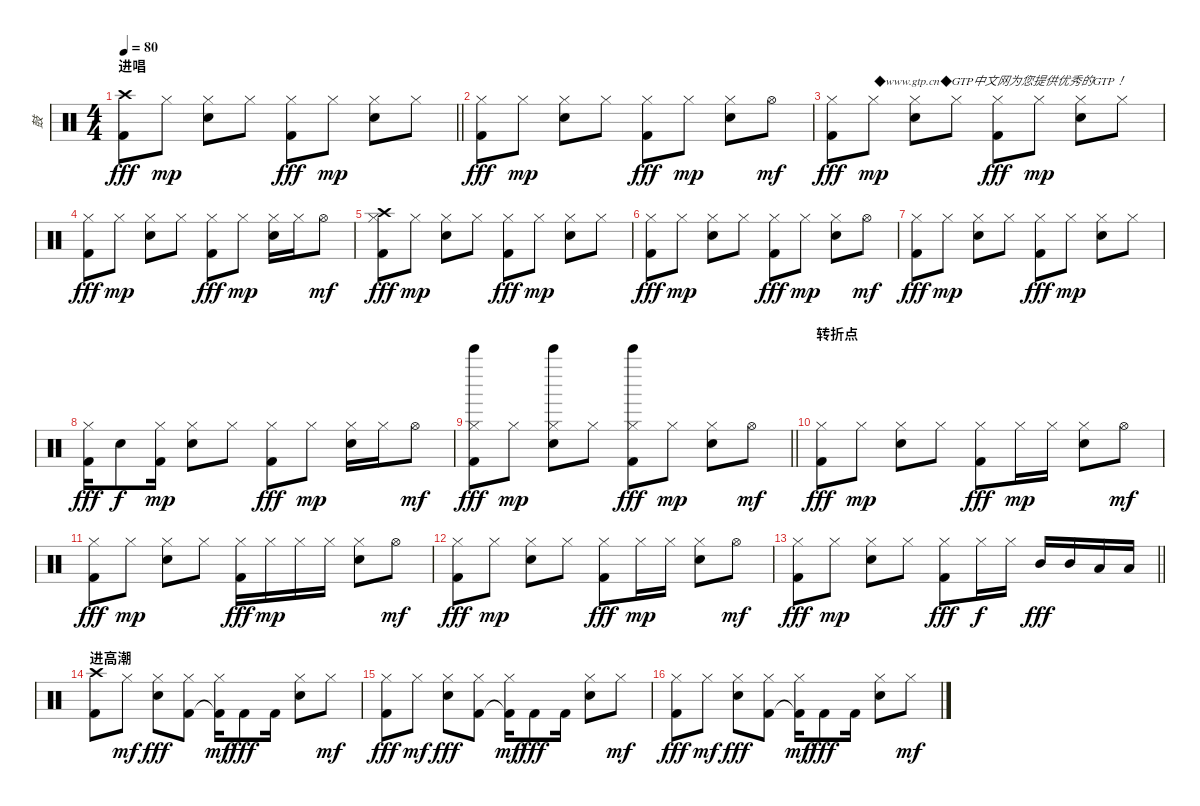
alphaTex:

\track ("鼓" "鼓") {instrument percussion}
\staff {score}
\articulation defaults
\ts (4 4)
\section ("" "进唱")
\tempo 80
\clef neutral
\barLineRight lightlight
\ks c
("Crash high (hit)" "Kick (hit) 2").8{dy fff} "Hi-Hat (closed)".8{dy mp} ("Hi-Hat (closed)" "Electric Snare (hit)").8 "Hi-Hat (closed)".8 ("Hi-Hat (closed)" "Kick (hit) 2").8{dy fff} "Hi-Hat (closed)".8{dy mp} ("Hi-Hat (closed)" "Electric Snare (hit)").8 "Hi-Hat (closed)".8 |
("Hi-Hat (closed)" "Kick (hit) 2").8{dy fff} "Hi-Hat (closed)".8{dy mp} ("Hi-Hat (closed)" "Electric Snare (hit)").8 "Hi-Hat (closed)".8 ("Hi-Hat (closed)" "Kick (hit) 2").8{dy fff} "Hi-Hat (closed)".8{dy mp} ("Hi-Hat (closed)" "Electric Snare (hit)").8 "Hi-Hat (open)".8{dy mf} |
("Hi-Hat (closed)" "Kick (hit) 2").8{dy fff} "Hi-Hat (closed)".8{txt "◆www.gtp.cn◆GTP中文网为您提供优秀的GTP！" dy mp} ("Hi-Hat (closed)" "Electric Snare (hit)").8 "Hi-Hat (closed)".8 ("Hi-Hat (closed)" "Kick (hit) 2").8{dy fff} "Hi-Hat (closed)".8{dy mp} ("Hi-Hat (closed)" "Electric Snare (hit)").8 "Hi-Hat (closed)".8 |
("Hi-Hat (closed)" "Kick (hit) 2").8{dy fff} "Hi-Hat (closed)".8{dy mp} ("Hi-Hat (closed)" "Electric Snare (hit)").8 "Hi-Hat (closed)".8 ("Hi-Hat (closed)" "Kick (hit) 2").8{dy fff} "Hi-Hat (closed)".8{dy mp} ("Hi-Hat (closed)" "Electric Snare (hit)").16 "Hi-Hat (closed)".16 "Hi-Hat (open)".8{dy mf} |
("Crash high (hit)" "Hi-Hat (closed)" "Kick (hit) 2").8{dy fff} "Hi-Hat (closed)".8{dy mp} ("Hi-Hat (closed)" "Electric Snare (hit)").8 "Hi-Hat (closed)".8 ("Hi-Hat (closed)" "Kick (hit) 2").8{dy fff} "Hi-Hat (closed)".8{dy mp} ("Hi-Hat (closed)" "Electric Snare (hit)").8 "Hi-Hat (closed)".8 |
("Hi-Hat (closed)" "Kick (hit) 2").8{dy fff} "Hi-Hat (closed)".8{dy mp} ("Hi-Hat (closed)" "Electric Snare (hit)").8 "Hi-Hat (closed)".8 ("Hi-Hat (closed)" "Kick (hit) 2").8{dy fff} "Hi-Hat (closed)".8{dy mp} ("Hi-Hat (closed)" "Electric Snare (hit)").8 "Hi-Hat (open)".8{dy mf} |
("Hi-Hat (closed)" "Kick (hit) 2").8{dy fff} "Hi-Hat (closed)".8{dy mp} ("Hi-Hat (closed)" "Electric Snare (hit)").8 "Hi-Hat (closed)".8 ("Hi-Hat (closed)" "Kick (hit) 2").8{dy fff} "Hi-Hat (closed)".8{dy mp} ("Hi-Hat (closed)" "Electric Snare (hit)").8 "Hi-Hat (closed)".8 |
("Hi-Hat (closed)" "Kick (hit) 2").16{dy fff} "Electric Snare (hit)".8{dy f} ("Hi-Hat (closed)" "Kick (hit) 2").16{dy mp} ("Hi-Hat (closed)" "Electric Snare (hit)").8 "Hi-Hat (closed)".8 ("Hi-Hat (closed)" "Kick (hit) 2").8{dy fff} "Hi-Hat (closed)".8{dy mp} ("Hi-Hat (closed)" "Electric Snare (hit)").16 "Hi-Hat (closed)".16 "Hi-Hat (open)".8{dy mf} |
\barLineRight lightlight
("Hi-Hat (closed)" "Bell Tree (hit)" "Kick (hit) 2").8{dy fff} "Hi-Hat (closed)".8{dy mp} ("Hi-Hat (closed)" "Electric Snare (hit)" "Bell Tree (hit)").8 "Hi-Hat (closed)".8 ("Hi-Hat (closed)" "Bell Tree (hit)" "Kick (hit) 2").8{dy fff} "Hi-Hat (closed)".8{dy mp} ("Hi-Hat (closed)" "Electric Snare (hit)").8 "Hi-Hat (open)".8{dy mf} |
\section ("" "转折点")
("Hi-Hat (closed)" "Kick (hit) 2").8{dy fff} "Hi-Hat (closed)".8{dy mp} ("Hi-Hat (closed)" "Electric Snare (hit)").8 "Hi-Hat (closed)".8 ("Hi-Hat (closed)" "Kick (hit) 2").8{dy fff} "Hi-Hat (closed)".16{dy mp} "Hi-Hat (closed)".16 ("Hi-Hat (closed)" "Electric Snare (hit)").8 "Hi-Hat (open)".8{dy mf} |
("Hi-Hat (closed)" "Kick (hit) 2").8{dy fff} "Hi-Hat (closed)".8{dy mp} ("Hi-Hat (closed)" "Electric Snare (hit)").8 "Hi-Hat (closed)".8 ("Hi-Hat (closed)" "Kick (hit) 2").16{dy fff} "Hi-Hat (closed)".16{dy mp} "Hi-Hat (closed)".16 "Hi-Hat (closed)".16 ("Hi-Hat (closed)" "Electric Snare (hit)").8 "Hi-Hat (open)".8{dy mf} |
("Hi-Hat (closed)" "Kick (hit) 2").8{dy fff} "Hi-Hat (closed)".8{dy mp} ("Hi-Hat (closed)" "Electric Snare (hit)").8 "Hi-Hat (closed)".8 ("Hi-Hat (closed)" "Kick (hit) 2").8{dy fff} "Hi-Hat (closed)".16{dy mp} "Hi-Hat (closed)".16 ("Hi-Hat (closed)" "Electric Snare (hit)").8 "Hi-Hat (open)".8{dy mf} |
\barLineRight lightlight
("Hi-Hat (closed)" "Kick (hit) 2").8{dy fff} "Hi-Hat (closed)".8{dy mp} ("Hi-Hat (closed)" "Electric Snare (hit)").8 "Hi-Hat (closed)".8 ("Hi-Hat (closed)" "Kick (hit) 2").8{dy fff} "Hi-Hat (closed)".16{dy f} "Hi-Hat (closed)".16 "Mid Tom (hit)".16{dy fff} "Mid Tom (hit)".16 "Low Tom (hit)".16 "Low Tom (hit)".16 |
\section ("" "进高潮")
("Crash high (hit)" "Kick (hit) 2").8 "Hi-Hat (closed)".8{dy mf} ("Hi-Hat (closed)" "Electric Snare (hit)").8{dy fff} ("Hi-Hat (closed)" "Kick (hit) 2").8 ("Hi-Hat (closed)" "Kick (hit) 2"{t}).16{dy mf} "Kick (hit) 2".8{dy fff} "Kick (hit) 2".16 ("Hi-Hat (closed)" "Electric Snare (hit)").8 "Hi-Hat (closed)".8{dy mf} |
("Hi-Hat (closed)" "Kick (hit) 2").8{dy fff} "Hi-Hat (closed)".8{dy mf} ("Hi-Hat (closed)" "Electric Snare (hit)").8{dy fff} ("Hi-Hat (closed)" "Kick (hit) 2").8 ("Hi-Hat (closed)" "Kick (hit) 2"{t}).16{dy mf} "Kick (hit) 2".8{dy fff} "Kick (hit) 2".16 ("Hi-Hat (closed)" "Electric Snare (hit)").8 "Hi-Hat (closed)".8{dy mf} |
("Hi-Hat (closed)" "Kick (hit) 2").8{dy fff} "Hi-Hat (closed)".8{dy mf} ("Hi-Hat (closed)" "Electric Snare (hit)").8{dy fff} ("Hi-Hat (closed)" "Kick (hit) 2").8 ("Hi-Hat (closed)" "Kick (hit) 2"{t}).16{dy mf} "Kick (hit) 2".8{dy fff} "Kick (hit) 2".16 ("Hi-Hat (closed)" "Electric Snare (hit)").8 "Hi-Hat (closed)".8{dy mf}
